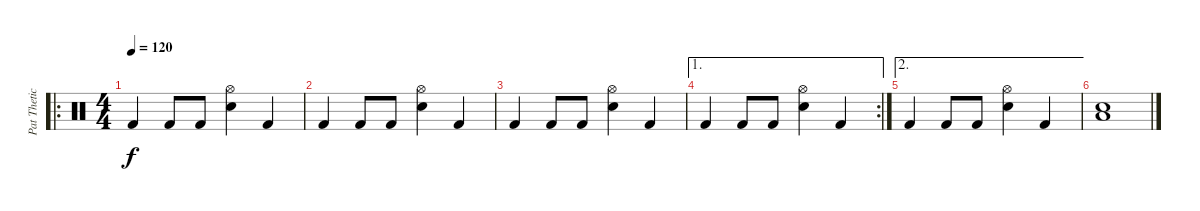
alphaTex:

\track ("Pat Thetic (Drums)" "Pat Thetic") {instrument percussion}
\staff {score}
\articulation defaults
\ro
\ts (4 4)
\tempo 120
\clef neutral
\ks c "Kick (hit) 2".4{dy f} "Kick (hit) 2".8 "Kick (hit) 2".8
("Hi-Hat (open)" "Electric Snare (hit)").4 "Kick (hit) 2".4 |
"Kick (hit) 2".4 "Kick (hit) 2".8 "Kick (hit) 2".8 ("Hi-Hat (open)" "Electric Snare (hit)").4 "Kick (hit) 2".4 |
"Kick (hit) 2".4 "Kick (hit) 2".8 "Kick (hit) 2".8 ("Hi-Hat (open)" "Electric Snare (hit)").4 "Kick (hit) 2".4 |
\ae 1
\rc 2 "Kick (hit) 2".4 "Kick (hit) 2".8 "Kick (hit) 2".8
("Hi-Hat (open)" "Electric Snare (hit)").4 "Kick (hit) 2".4 |
\ae 2 "Kick (hit) 2".4 "Kick (hit) 2".8 "Kick (hit) 2".8
("Hi-Hat (open)" "Electric Snare (hit)").4 "Kick (hit) 2".4 |
("Low Tom (hit)" "Electric Snare (hit)").1
